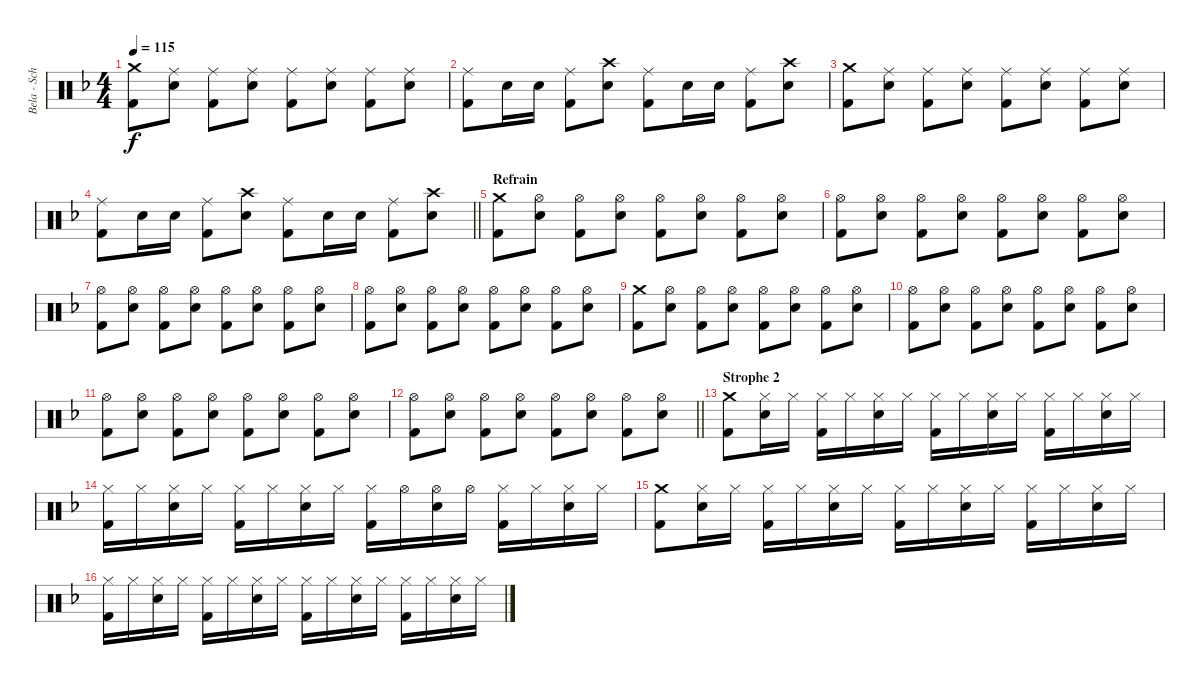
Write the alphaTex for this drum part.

\track ("Bela - Schlagzeug" "Bela - Sch") {instrument percussion}
\staff {score}
\articulation defaults
\ts (4 4)
\tempo 115
\clef neutral
\ks f
("Crash medium (hit)" "Kick (hit) 2").8{dy f} ("Ride (middle)" "Snare (hit) 2").8 ("Ride (middle)" "Kick (hit) 2").8 ("Ride (middle)" "Snare (hit) 2").8 ("Ride (middle)" "Kick (hit) 2").8 ("Ride (middle)" "Snare (hit) 2").8 ("Ride (middle)" "Kick (hit) 2").8 ("Ride (middle)" "Snare (hit) 2").8 |
("Ride (middle)" "Kick (hit) 2").8 "Snare (hit) 2".16 "Snare (hit) 2".16 ("Ride (middle)" "Kick (hit) 2").8 ("Crash high (hit)" "Snare (hit) 2").8 ("Ride (middle)" "Kick (hit) 2").8 "Snare (hit) 2".16 "Snare (hit) 2".16 ("Ride (middle)" "Kick (hit) 2").8 ("Crash high (hit)" "Snare (hit) 2").8 |
("Crash medium (hit)" "Kick (hit) 2").8 ("Ride (middle)" "Snare (hit) 2").8 ("Ride (middle)" "Kick (hit) 2").8 ("Ride (middle)" "Snare (hit) 2").8 ("Ride (middle)" "Kick (hit) 2").8 ("Ride (middle)" "Snare (hit) 2").8 ("Ride (middle)" "Kick (hit) 2").8 ("Ride (middle)" "Snare (hit) 2").8 |
\barLineRight lightlight
("Ride (middle)" "Kick (hit) 2").8 "Snare (hit) 2".16 "Snare (hit) 2".16 ("Ride (middle)" "Kick (hit) 2").8 ("Crash high (hit)" "Snare (hit) 2").8 ("Ride (middle)" "Kick (hit) 2").8 "Snare (hit) 2".16 "Snare (hit) 2".16 ("Ride (middle)" "Kick (hit) 2").8 ("Crash high (hit)" "Snare (hit) 2").8 |
\section ("" "Refrain")
("Crash medium (hit)" "Kick (hit) 2").8 ("Hi-Hat (open)" "Snare (hit) 2").8 ("Hi-Hat (open)" "Kick (hit) 2").8 ("Hi-Hat (open)" "Snare (hit) 2").8 ("Hi-Hat (open)" "Kick (hit) 2").8 ("Hi-Hat (open)" "Snare (hit) 2").8 ("Hi-Hat (open)" "Kick (hit) 2").8 ("Hi-Hat (open)" "Snare (hit) 2").8 |
("Hi-Hat (open)" "Kick (hit) 2").8 ("Hi-Hat (open)" "Snare (hit) 2").8 ("Hi-Hat (open)" "Kick (hit) 2").8 ("Hi-Hat (open)" "Snare (hit) 2").8 ("Hi-Hat (open)" "Kick (hit) 2").8 ("Hi-Hat (open)" "Snare (hit) 2").8 ("Hi-Hat (open)" "Kick (hit) 2").8 ("Hi-Hat (open)" "Snare (hit) 2").8 |
("Hi-Hat (open)" "Kick (hit) 2").8 ("Hi-Hat (open)" "Snare (hit) 2").8 ("Hi-Hat (open)" "Kick (hit) 2").8 ("Hi-Hat (open)" "Snare (hit) 2").8 ("Hi-Hat (open)" "Kick (hit) 2").8 ("Hi-Hat (open)" "Snare (hit) 2").8 ("Hi-Hat (open)" "Kick (hit) 2").8 ("Hi-Hat (open)" "Snare (hit) 2").8 |
("Hi-Hat (open)" "Kick (hit) 2").8 ("Hi-Hat (open)" "Snare (hit) 2").8 ("Hi-Hat (open)" "Kick (hit) 2").8 ("Hi-Hat (open)" "Snare (hit) 2").8 ("Hi-Hat (open)" "Kick (hit) 2").8 ("Hi-Hat (open)" "Snare (hit) 2").8 ("Hi-Hat (open)" "Kick (hit) 2").8 ("Hi-Hat (open)" "Snare (hit) 2").8 |
("Crash medium (hit)" "Kick (hit) 2").8 ("Hi-Hat (open)" "Snare (hit) 2").8 ("Hi-Hat (open)" "Kick (hit) 2").8 ("Hi-Hat (open)" "Snare (hit) 2").8 ("Hi-Hat (open)" "Kick (hit) 2").8 ("Hi-Hat (open)" "Snare (hit) 2").8 ("Hi-Hat (open)" "Kick (hit) 2").8 ("Hi-Hat (open)" "Snare (hit) 2").8 |
("Hi-Hat (open)" "Kick (hit) 2").8 ("Hi-Hat (open)" "Snare (hit) 2").8 ("Hi-Hat (open)" "Kick (hit) 2").8 ("Hi-Hat (open)" "Snare (hit) 2").8 ("Hi-Hat (open)" "Kick (hit) 2").8 ("Hi-Hat (open)" "Snare (hit) 2").8 ("Hi-Hat (open)" "Kick (hit) 2").8 ("Hi-Hat (open)" "Snare (hit) 2").8 |
("Hi-Hat (open)" "Kick (hit) 2").8 ("Hi-Hat (open)" "Snare (hit) 2").8 ("Hi-Hat (open)" "Kick (hit) 2").8 ("Hi-Hat (open)" "Snare (hit) 2").8 ("Hi-Hat (open)" "Kick (hit) 2").8 ("Hi-Hat (open)" "Snare (hit) 2").8 ("Hi-Hat (open)" "Kick (hit) 2").8 ("Hi-Hat (open)" "Snare (hit) 2").8 |
\barLineRight lightlight
("Hi-Hat (open)" "Kick (hit) 2").8 ("Hi-Hat (open)" "Snare (hit) 2").8 ("Hi-Hat (open)" "Kick (hit) 2").8 ("Hi-Hat (open)" "Snare (hit) 2").8 ("Hi-Hat (open)" "Kick (hit) 2").8 ("Hi-Hat (open)" "Snare (hit) 2").8 ("Hi-Hat (open)" "Kick (hit) 2").8 ("Hi-Hat (open)" "Snare (hit) 2").8 |
\section ("" "Strophe 2")
("Crash medium (hit)" "Kick (hit) 2").8 ("Hi-Hat (closed)" "Snare (hit) 2").16 "Hi-Hat (closed)".16 ("Hi-Hat (closed)" "Kick (hit) 2").16 "Hi-Hat (closed)".16 ("Hi-Hat (closed)" "Snare (hit) 2").16 "Hi-Hat (closed)".16 ("Hi-Hat (closed)" "Kick (hit) 2").16 "Hi-Hat (closed)".16 ("Hi-Hat (closed)" "Snare (hit) 2").16 "Hi-Hat (closed)".16 ("Hi-Hat (closed)" "Kick (hit) 2").16 "Hi-Hat (closed)".16 ("Hi-Hat (closed)" "Snare (hit) 2").16 "Hi-Hat (closed)".16 |
("Hi-Hat (closed)" "Kick (hit) 2").16 "Hi-Hat (closed)".16 ("Hi-Hat (closed)" "Snare (hit) 2").16 "Hi-Hat (closed)".16 ("Hi-Hat (closed)" "Kick (hit) 2").16 "Hi-Hat (closed)".16 ("Hi-Hat (closed)" "Snare (hit) 2").16 "Hi-Hat (closed)".16 ("Hi-Hat (closed)" "Kick (hit) 2").16 "Hi-Hat (open)".16 ("Hi-Hat (open)" "Snare (hit) 2").16 "Hi-Hat (open)".16 ("Hi-Hat (closed)" "Kick (hit) 2").16 "Hi-Hat (closed)".16 ("Hi-Hat (closed)" "Snare (hit) 2").16 "Hi-Hat (closed)".16 |
("Crash medium (hit)" "Kick (hit) 2").8 ("Hi-Hat (closed)" "Snare (hit) 2").16 "Hi-Hat (closed)".16 ("Hi-Hat (closed)" "Kick (hit) 2").16 "Hi-Hat (closed)".16 ("Hi-Hat (closed)" "Snare (hit) 2").16 "Hi-Hat (closed)".16 ("Hi-Hat (closed)" "Kick (hit) 2").16 "Hi-Hat (closed)".16 ("Hi-Hat (closed)" "Snare (hit) 2").16 "Hi-Hat (closed)".16 ("Hi-Hat (closed)" "Kick (hit) 2").16 "Hi-Hat (closed)".16 ("Hi-Hat (closed)" "Snare (hit) 2").16 "Hi-Hat (closed)".16 |
("Hi-Hat (closed)" "Kick (hit) 2").16 "Hi-Hat (closed)".16 ("Hi-Hat (closed)" "Snare (hit) 2").16 "Hi-Hat (closed)".16 ("Hi-Hat (closed)" "Kick (hit) 2").16 "Hi-Hat (closed)".16 ("Hi-Hat (closed)" "Snare (hit) 2").16 "Hi-Hat (closed)".16 ("Hi-Hat (closed)" "Kick (hit) 2").16 "Hi-Hat (closed)".16 ("Hi-Hat (closed)" "Snare (hit) 2").16 "Hi-Hat (closed)".16 ("Hi-Hat (closed)" "Kick (hit) 2").16 "Hi-Hat (closed)".16 ("Hi-Hat (closed)" "Snare (hit) 2").16 "Hi-Hat (closed)".16
